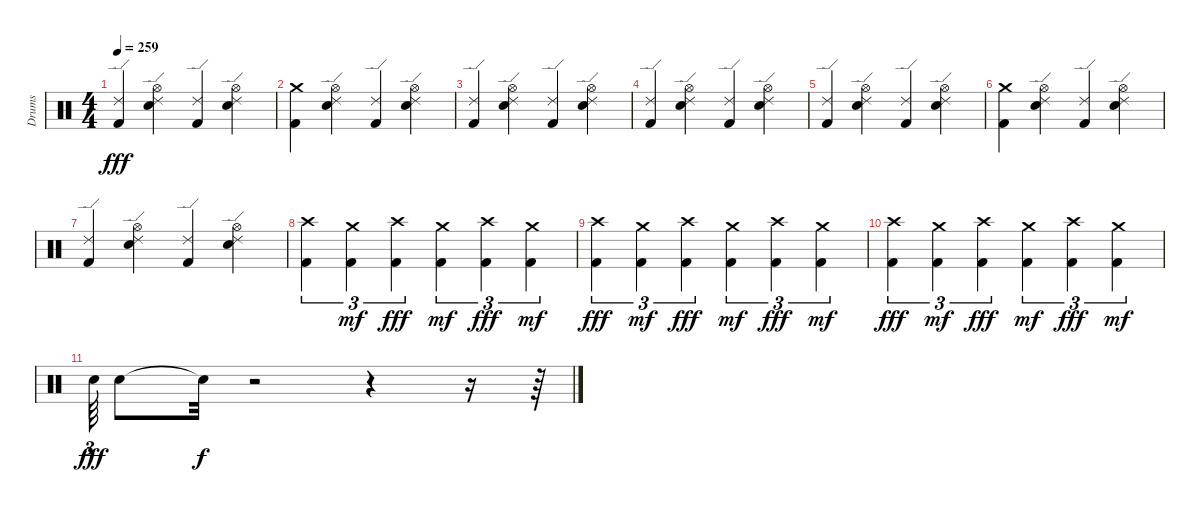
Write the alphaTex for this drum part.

\track ("Drums" "Drums") {instrument percussion}
\staff {score}
\articulation defaults
\ts (4 4)
\tempo 259
\clef neutral
\ks c
("Kick (hit) 2" "Ride (edge) 2").4{dy fff} ("Electric Snare (hit)" "Ride (edge) 2" "Hi-Hat (open)").4 ("Kick (hit) 2" "Ride (edge) 2").4 ("Electric Snare (hit)" "Ride (edge) 2" "Hi-Hat (open)").4 |
("Kick (hit) 2" "Crash medium (hit)").4 ("Electric Snare (hit)" "Ride (edge) 2" "Hi-Hat (open)").4 ("Kick (hit) 2" "Ride (edge) 2").4 ("Electric Snare (hit)" "Ride (edge) 2" "Hi-Hat (open)").4 |
("Kick (hit) 2" "Ride (edge) 2").4 ("Electric Snare (hit)" "Ride (edge) 2" "Hi-Hat (open)").4 ("Kick (hit) 2" "Ride (edge) 2").4 ("Electric Snare (hit)" "Ride (edge) 2" "Hi-Hat (open)").4 |
("Kick (hit) 2" "Ride (edge) 2").4 ("Electric Snare (hit)" "Ride (edge) 2" "Hi-Hat (open)").4 ("Kick (hit) 2" "Ride (edge) 2").4 ("Electric Snare (hit)" "Ride (edge) 2" "Hi-Hat (open)").4 |
("Kick (hit) 2" "Ride (edge) 2").4 ("Electric Snare (hit)" "Ride (edge) 2" "Hi-Hat (open)").4 ("Kick (hit) 2" "Ride (edge) 2").4 ("Electric Snare (hit)" "Ride (edge) 2" "Hi-Hat (open)").4 |
("Kick (hit) 2" "Crash medium (hit)").4 ("Electric Snare (hit)" "Ride (edge) 2" "Hi-Hat (open)").4 ("Kick (hit) 2" "Ride (edge) 2").4 ("Electric Snare (hit)" "Ride (edge) 2" "Hi-Hat (open)").4 |
("Kick (hit) 2" "Ride (edge) 2").4 ("Electric Snare (hit)" "Ride (edge) 2" "Hi-Hat (open)").4 ("Kick (hit) 2" "Ride (edge) 2").4 ("Electric Snare (hit)" "Ride (edge) 2" "Hi-Hat (open)").4 |
("Kick (hit) 2" "Crash high (hit)").4{tu (3 2)} ("Kick (hit) 2" "Crash medium (hit)").4{tu (3 2) dy mf} ("Kick (hit) 2" "Crash high (hit)").4{tu (3 2) dy fff} ("Kick (hit) 2" "Crash medium (hit)").4{tu (3 2) dy mf} ("Kick (hit) 2" "Crash high (hit)").4{tu (3 2) dy fff} ("Kick (hit) 2" "Crash medium (hit)").4{tu (3 2) dy mf} |
("Kick (hit) 2" "Crash high (hit)").4{tu (3 2) dy fff} ("Kick (hit) 2" "Crash medium (hit)").4{tu (3 2) dy mf} ("Kick (hit) 2" "Crash high (hit)").4{tu (3 2) dy fff} ("Kick (hit) 2" "Crash medium (hit)").4{tu (3 2) dy mf} ("Kick (hit) 2" "Crash high (hit)").4{tu (3 2) dy fff} ("Kick (hit) 2" "Crash medium (hit)").4{tu (3 2) dy mf} |
("Kick (hit) 2" "Crash high (hit)").4{tu (3 2) dy fff} ("Kick (hit) 2" "Crash medium (hit)").4{tu (3 2) dy mf} ("Kick (hit) 2" "Crash high (hit)").4{tu (3 2) dy fff} ("Kick (hit) 2" "Crash medium (hit)").4{tu (3 2) dy mf} ("Kick (hit) 2" "Crash high (hit)").4{tu (3 2) dy fff} ("Kick (hit) 2" "Crash medium (hit)").4{tu (3 2) dy mf} |
"Electric Snare (hit)".64{tu (3 2) dy fff} "Electric Snare (hit)".8 "Snare (hit)"{t}.32{dy f} r.2 r.4 r.16 r.64
